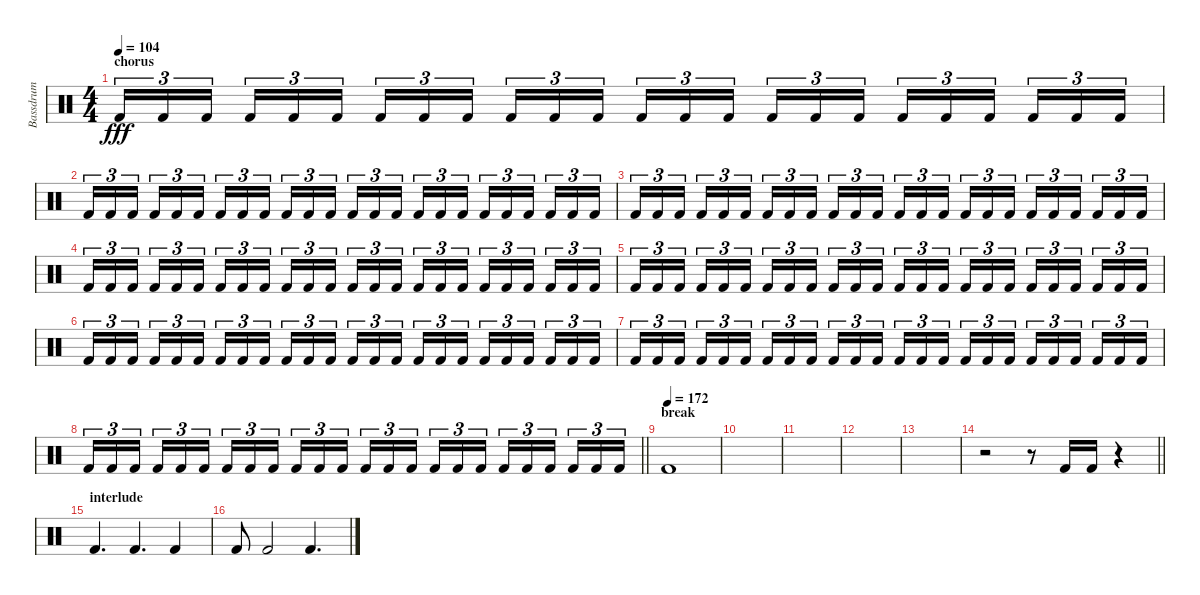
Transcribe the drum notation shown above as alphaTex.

\track ("Bassdrum" "Bassdrum") {instrument percussion}
\staff {score}
\articulation defaults
\ts (4 4)
\section ("" "chorus")
\tempo 104
\clef neutral
\ks c "Kick (hit) 2".16{tu (3 2) dy fff} "Kick (hit) 2".16{tu (3 2)} "Kick (hit) 2".16{tu (3 2) beam splitsecondary} "Kick (hit) 2".16{tu (3 2)} "Kick (hit) 2".16{tu (3 2)} "Kick (hit) 2".16{tu (3 2)} "Kick (hit) 2".16{tu (3 2)} "Kick (hit) 2".16{tu (3 2)} "Kick (hit) 2".16{tu (3 2) beam splitsecondary} "Kick (hit) 2".16{tu (3 2)} "Kick (hit) 2".16{tu (3 2)} "Kick (hit) 2".16{tu (3 2)} "Kick (hit) 2".16{tu (3 2)} "Kick (hit) 2".16{tu (3 2)} "Kick (hit) 2".16{tu (3 2) beam splitsecondary} "Kick (hit) 2".16{tu (3 2)} "Kick (hit) 2".16{tu (3 2)} "Kick (hit) 2".16{tu (3 2)} "Kick (hit) 2".16{tu (3 2)} "Kick (hit) 2".16{tu (3 2)} "Kick (hit) 2".16{tu (3 2) beam splitsecondary} "Kick (hit) 2".16{tu (3 2)} "Kick (hit) 2".16{tu (3 2)} "Kick (hit) 2".16{tu (3 2)}
|
"Kick (hit) 2".16{tu (3 2)} "Kick (hit) 2".16{tu (3 2)} "Kick (hit) 2".16{tu (3 2) beam splitsecondary} "Kick (hit) 2".16{tu (3 2)} "Kick (hit) 2".16{tu (3 2)} "Kick (hit) 2".16{tu (3 2)} "Kick (hit) 2".16{tu (3 2)} "Kick (hit) 2".16{tu (3 2)} "Kick (hit) 2".16{tu (3 2) beam splitsecondary} "Kick (hit) 2".16{tu (3 2)} "Kick (hit) 2".16{tu (3 2)} "Kick (hit) 2".16{tu (3 2)} "Kick (hit) 2".16{tu (3 2)} "Kick (hit) 2".16{tu (3 2)} "Kick (hit) 2".16{tu (3 2) beam splitsecondary} "Kick (hit) 2".16{tu (3 2)} "Kick (hit) 2".16{tu (3 2)} "Kick (hit) 2".16{tu (3 2)} "Kick (hit) 2".16{tu (3 2)} "Kick (hit) 2".16{tu (3 2)} "Kick (hit) 2".16{tu (3 2) beam splitsecondary} "Kick (hit) 2".16{tu (3 2)} "Kick (hit) 2".16{tu (3 2)} "Kick (hit) 2".16{tu (3 2)} |
"Kick (hit) 2".16{tu (3 2)} "Kick (hit) 2".16{tu (3 2)} "Kick (hit) 2".16{tu (3 2) beam splitsecondary} "Kick (hit) 2".16{tu (3 2)} "Kick (hit) 2".16{tu (3 2)} "Kick (hit) 2".16{tu (3 2)} "Kick (hit) 2".16{tu (3 2)} "Kick (hit) 2".16{tu (3 2)} "Kick (hit) 2".16{tu (3 2) beam splitsecondary} "Kick (hit) 2".16{tu (3 2)} "Kick (hit) 2".16{tu (3 2)} "Kick (hit) 2".16{tu (3 2)} "Kick (hit) 2".16{tu (3 2)} "Kick (hit) 2".16{tu (3 2)} "Kick (hit) 2".16{tu (3 2) beam splitsecondary} "Kick (hit) 2".16{tu (3 2)} "Kick (hit) 2".16{tu (3 2)} "Kick (hit) 2".16{tu (3 2)} "Kick (hit) 2".16{tu (3 2)} "Kick (hit) 2".16{tu (3 2)} "Kick (hit) 2".16{tu (3 2) beam splitsecondary} "Kick (hit) 2".16{tu (3 2)} "Kick (hit) 2".16{tu (3 2)} "Kick (hit) 2".16{tu (3 2)} |
"Kick (hit) 2".16{tu (3 2)} "Kick (hit) 2".16{tu (3 2)} "Kick (hit) 2".16{tu (3 2) beam splitsecondary} "Kick (hit) 2".16{tu (3 2)} "Kick (hit) 2".16{tu (3 2)} "Kick (hit) 2".16{tu (3 2)} "Kick (hit) 2".16{tu (3 2)} "Kick (hit) 2".16{tu (3 2)} "Kick (hit) 2".16{tu (3 2) beam splitsecondary} "Kick (hit) 2".16{tu (3 2)} "Kick (hit) 2".16{tu (3 2)} "Kick (hit) 2".16{tu (3 2)} "Kick (hit) 2".16{tu (3 2)} "Kick (hit) 2".16{tu (3 2)} "Kick (hit) 2".16{tu (3 2) beam splitsecondary} "Kick (hit) 2".16{tu (3 2)} "Kick (hit) 2".16{tu (3 2)} "Kick (hit) 2".16{tu (3 2)} "Kick (hit) 2".16{tu (3 2)} "Kick (hit) 2".16{tu (3 2)} "Kick (hit) 2".16{tu (3 2) beam splitsecondary} "Kick (hit) 2".16{tu (3 2)} "Kick (hit) 2".16{tu (3 2)} "Kick (hit) 2".16{tu (3 2)} |
"Kick (hit) 2".16{tu (3 2)} "Kick (hit) 2".16{tu (3 2)} "Kick (hit) 2".16{tu (3 2) beam splitsecondary} "Kick (hit) 2".16{tu (3 2)} "Kick (hit) 2".16{tu (3 2)} "Kick (hit) 2".16{tu (3 2)} "Kick (hit) 2".16{tu (3 2)} "Kick (hit) 2".16{tu (3 2)} "Kick (hit) 2".16{tu (3 2) beam splitsecondary} "Kick (hit) 2".16{tu (3 2)} "Kick (hit) 2".16{tu (3 2)} "Kick (hit) 2".16{tu (3 2)} "Kick (hit) 2".16{tu (3 2)} "Kick (hit) 2".16{tu (3 2)} "Kick (hit) 2".16{tu (3 2) beam splitsecondary} "Kick (hit) 2".16{tu (3 2)} "Kick (hit) 2".16{tu (3 2)} "Kick (hit) 2".16{tu (3 2)} "Kick (hit) 2".16{tu (3 2)} "Kick (hit) 2".16{tu (3 2)} "Kick (hit) 2".16{tu (3 2) beam splitsecondary} "Kick (hit) 2".16{tu (3 2)} "Kick (hit) 2".16{tu (3 2)} "Kick (hit) 2".16{tu (3 2)} |
"Kick (hit) 2".16{tu (3 2)} "Kick (hit) 2".16{tu (3 2)} "Kick (hit) 2".16{tu (3 2) beam splitsecondary} "Kick (hit) 2".16{tu (3 2)} "Kick (hit) 2".16{tu (3 2)} "Kick (hit) 2".16{tu (3 2)} "Kick (hit) 2".16{tu (3 2)} "Kick (hit) 2".16{tu (3 2)} "Kick (hit) 2".16{tu (3 2) beam splitsecondary} "Kick (hit) 2".16{tu (3 2)} "Kick (hit) 2".16{tu (3 2)} "Kick (hit) 2".16{tu (3 2)} "Kick (hit) 2".16{tu (3 2)} "Kick (hit) 2".16{tu (3 2)} "Kick (hit) 2".16{tu (3 2) beam splitsecondary} "Kick (hit) 2".16{tu (3 2)} "Kick (hit) 2".16{tu (3 2)} "Kick (hit) 2".16{tu (3 2)} "Kick (hit) 2".16{tu (3 2)} "Kick (hit) 2".16{tu (3 2)} "Kick (hit) 2".16{tu (3 2) beam splitsecondary} "Kick (hit) 2".16{tu (3 2)} "Kick (hit) 2".16{tu (3 2)} "Kick (hit) 2".16{tu (3 2)} |
"Kick (hit) 2".16{tu (3 2)} "Kick (hit) 2".16{tu (3 2)} "Kick (hit) 2".16{tu (3 2) beam splitsecondary} "Kick (hit) 2".16{tu (3 2)} "Kick (hit) 2".16{tu (3 2)} "Kick (hit) 2".16{tu (3 2)} "Kick (hit) 2".16{tu (3 2)} "Kick (hit) 2".16{tu (3 2)} "Kick (hit) 2".16{tu (3 2) beam splitsecondary} "Kick (hit) 2".16{tu (3 2)} "Kick (hit) 2".16{tu (3 2)} "Kick (hit) 2".16{tu (3 2)} "Kick (hit) 2".16{tu (3 2)} "Kick (hit) 2".16{tu (3 2)} "Kick (hit) 2".16{tu (3 2) beam splitsecondary} "Kick (hit) 2".16{tu (3 2)} "Kick (hit) 2".16{tu (3 2)} "Kick (hit) 2".16{tu (3 2)} "Kick (hit) 2".16{tu (3 2)} "Kick (hit) 2".16{tu (3 2)} "Kick (hit) 2".16{tu (3 2) beam splitsecondary} "Kick (hit) 2".16{tu (3 2)} "Kick (hit) 2".16{tu (3 2)} "Kick (hit) 2".16{tu (3 2)} |
\barLineRight lightlight "Kick (hit) 2".16{tu (3 2)} "Kick (hit) 2".16{tu (3 2)} "Kick (hit) 2".16{tu (3 2) beam splitsecondary} "Kick (hit) 2".16{tu (3 2)} "Kick (hit) 2".16{tu (3 2)} "Kick (hit) 2".16{tu (3 2)} "Kick (hit) 2".16{tu (3 2)} "Kick (hit) 2".16{tu (3 2)} "Kick (hit) 2".16{tu (3 2) beam splitsecondary} "Kick (hit) 2".16{tu (3 2)} "Kick (hit) 2".16{tu (3 2)} "Kick (hit) 2".16{tu (3 2)} "Kick (hit) 2".16{tu (3 2)} "Kick (hit) 2".16{tu (3 2)} "Kick (hit) 2".16{tu (3 2) beam splitsecondary} "Kick (hit) 2".16{tu (3 2)} "Kick (hit) 2".16{tu (3 2)} "Kick (hit) 2".16{tu (3 2)} "Kick (hit) 2".16{tu (3 2)} "Kick (hit) 2".16{tu (3 2)} "Kick (hit) 2".16{tu (3 2) beam splitsecondary} "Kick (hit) 2".16{tu (3 2)} "Kick (hit) 2".16{tu (3 2)} "Kick (hit) 2".16{tu (3 2)}
|
\section ("" "break")
\tempo (172)
"Kick (hit) 2".1 |
|
|
|
|
\barLineRight lightlight
r.2 r.8 "Kick (hit) 2".16 "Kick (hit) 2".16 r.4 |
\section ("" "interlude")
"Kick (hit) 2".4{d} "Kick (hit) 2".4{d} "Kick (hit) 2".4 |
"Kick (hit) 2".8 "Kick (hit) 2".2 "Kick (hit) 2".4{d}
